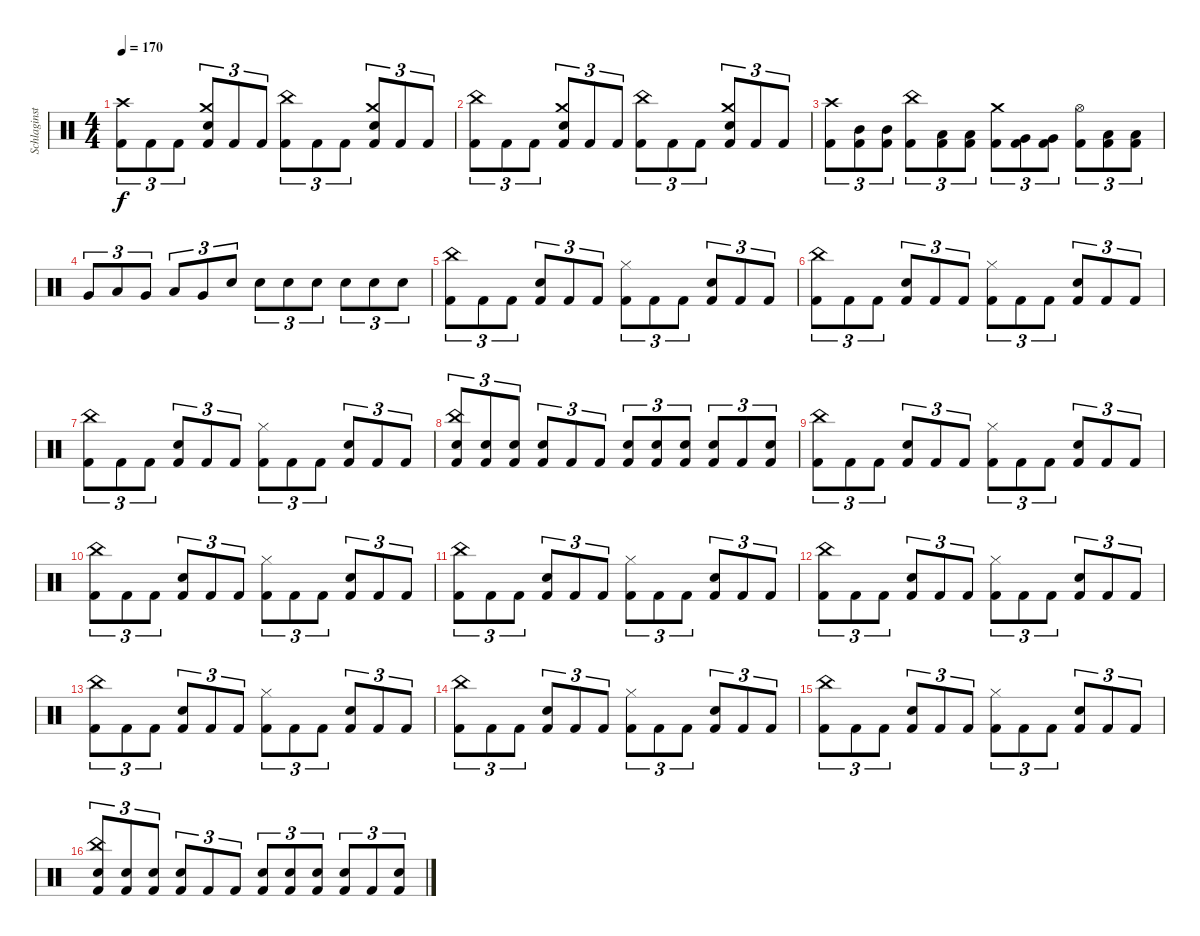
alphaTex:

\track ("Schlaginstrumente - Auswahl" "Schlaginst") {instrument percussion}
\staff {score}
\articulation defaults
\ts (4 4)
\tempo 170
\clef neutral
\ks c
("Crash high (hit)" "Kick (hit) 2").8{tu (3 2) dy f} "Kick (hit) 2".8{tu (3 2)} "Kick (hit) 2".8{tu (3 2)} ("Crash medium (hit)" "Electric Snare (hit)" "Kick (hit) 2").8{tu (3 2)} "Kick (hit) 2".8{tu (3 2)} "Kick (hit) 2".8{tu (3 2)} ("China (hit)" "Kick (hit) 2").8{tu (3 2)} "Kick (hit) 2".8{tu (3 2)} "Kick (hit) 2".8{tu (3 2)} ("Crash medium (hit)" "Electric Snare (hit)" "Kick (hit) 2").8{tu (3 2)} "Kick (hit) 2".8{tu (3 2)} "Kick (hit) 2".8{tu (3 2)} |
("China (hit)" "Kick (hit) 2").8{tu (3 2)} "Kick (hit) 2".8{tu (3 2)} "Kick (hit) 2".8{tu (3 2)} ("Crash medium (hit)" "Electric Snare (hit)" "Kick (hit) 2").8{tu (3 2)} "Kick (hit) 2".8{tu (3 2)} "Kick (hit) 2".8{tu (3 2)} ("China (hit)" "Kick (hit) 2").8{tu (3 2)} "Kick (hit) 2".8{tu (3 2)} "Kick (hit) 2".8{tu (3 2)} ("Crash medium (hit)" "Electric Snare (hit)" "Kick (hit) 2").8{tu (3 2)} "Kick (hit) 2".8{tu (3 2)} "Kick (hit) 2".8{tu (3 2)} |
("Crash high (hit)" "Kick (hit) 2").8{tu (3 2)} ("Mid Tom (hit)" "Kick (hit) 2").8{tu (3 2)} ("Mid Tom (hit)" "Kick (hit) 2").8{tu (3 2)} ("China (hit)" "Kick (hit) 2").8{tu (3 2)} ("Low Tom (hit)" "Kick (hit) 2").8{tu (3 2)} ("Low Tom (hit)" "Kick (hit) 2").8{tu (3 2)} ("Crash medium (hit)" "Kick (hit) 2").8{tu (3 2)} ("Very Low Tom (hit)" "Kick (hit) 2").8{tu (3 2)} ("Very Low Tom (hit)" "Kick (hit) 2").8{tu (3 2)} ("Hi-Hat (open)" "Kick (hit) 2").8{tu (3 2)} ("Low Floor Tom (hit)" "Kick (hit) 2").8{tu (3 2)} ("Low Floor Tom (hit)" "Kick (hit) 2").8{tu (3 2)} |
"Very Low Tom (hit)".8{tu (3 2)} "Low Tom (hit)".8{tu (3 2)} "Very Low Tom (hit)".8{tu (3 2)} "Low Tom (hit)".8{tu (3 2)} "Very Low Tom (hit)".8{tu (3 2)} "Electric Snare (hit)".8{tu (3 2)} "Electric Snare (hit)".8{tu (3 2)} "Electric Snare (hit)".8{tu (3 2)} "Electric Snare (hit)".8{tu (3 2)} "Electric Snare (hit)".8{tu (3 2)} "Electric Snare (hit)".8{tu (3 2)} "Electric Snare (hit)".8{tu (3 2)} |
("Kick (hit) 2" "China (hit)").8{tu (3 2)} "Kick (hit) 2".8{tu (3 2)} "Kick (hit) 2".8{tu (3 2)} ("Kick (hit) 2" "Snare (hit) 2").8{tu (3 2)} "Kick (hit) 2".8{tu (3 2)} "Kick (hit) 2".8{tu (3 2)} ("Kick (hit) 2" "Hi-Hat (closed)").8{tu (3 2)} "Kick (hit) 2".8{tu (3 2)} "Kick (hit) 2".8{tu (3 2)} ("Kick (hit) 2" "Snare (hit) 2").8{tu (3 2)} "Kick (hit) 2".8{tu (3 2)} "Kick (hit) 2".8{tu (3 2)} |
("Kick (hit) 2" "China (hit)").8{tu (3 2)} "Kick (hit) 2".8{tu (3 2)} "Kick (hit) 2".8{tu (3 2)} ("Kick (hit) 2" "Snare (hit) 2").8{tu (3 2)} "Kick (hit) 2".8{tu (3 2)} "Kick (hit) 2".8{tu (3 2)} ("Kick (hit) 2" "Hi-Hat (closed)").8{tu (3 2)} "Kick (hit) 2".8{tu (3 2)} "Kick (hit) 2".8{tu (3 2)} ("Kick (hit) 2" "Snare (hit) 2").8{tu (3 2)} "Kick (hit) 2".8{tu (3 2)} "Kick (hit) 2".8{tu (3 2)} |
("Kick (hit) 2" "China (hit)").8{tu (3 2)} "Kick (hit) 2".8{tu (3 2)} "Kick (hit) 2".8{tu (3 2)} ("Kick (hit) 2" "Snare (hit) 2").8{tu (3 2)} "Kick (hit) 2".8{tu (3 2)} "Kick (hit) 2".8{tu (3 2)} ("Kick (hit) 2" "Hi-Hat (closed)").8{tu (3 2)} "Kick (hit) 2".8{tu (3 2)} "Kick (hit) 2".8{tu (3 2)} ("Kick (hit) 2" "Snare (hit) 2").8{tu (3 2)} "Kick (hit) 2".8{tu (3 2)} "Kick (hit) 2".8{tu (3 2)} |
("Kick (hit) 2" "Snare (hit) 2" "China (hit)").8{tu (3 2)} ("Kick (hit) 2" "Snare (hit) 2").8{tu (3 2)} ("Kick (hit) 2" "Snare (hit) 2").8{tu (3 2)} ("Kick (hit) 2" "Snare (hit) 2").8{tu (3 2)} "Kick (hit) 2".8{tu (3 2)} "Kick (hit) 2".8{tu (3 2)} ("Kick (hit) 2" "Snare (hit) 2").8{tu (3 2)} ("Kick (hit) 2" "Snare (hit) 2").8{tu (3 2)} ("Kick (hit) 2" "Snare (hit) 2").8{tu (3 2)} ("Kick (hit) 2" "Snare (hit) 2").8{tu (3 2)} "Kick (hit) 2".8{tu (3 2)} ("Kick (hit) 2" "Snare (hit) 2").8{tu (3 2)} |
("Kick (hit) 2" "China (hit)").8{tu (3 2)} "Kick (hit) 2".8{tu (3 2)} "Kick (hit) 2".8{tu (3 2)} ("Kick (hit) 2" "Snare (hit) 2").8{tu (3 2)} "Kick (hit) 2".8{tu (3 2)} "Kick (hit) 2".8{tu (3 2)} ("Kick (hit) 2" "Hi-Hat (closed)").8{tu (3 2)} "Kick (hit) 2".8{tu (3 2)} "Kick (hit) 2".8{tu (3 2)} ("Kick (hit) 2" "Snare (hit) 2").8{tu (3 2)} "Kick (hit) 2".8{tu (3 2)} "Kick (hit) 2".8{tu (3 2)} |
("Kick (hit) 2" "China (hit)").8{tu (3 2)} "Kick (hit) 2".8{tu (3 2)} "Kick (hit) 2".8{tu (3 2)} ("Kick (hit) 2" "Snare (hit) 2").8{tu (3 2)} "Kick (hit) 2".8{tu (3 2)} "Kick (hit) 2".8{tu (3 2)} ("Kick (hit) 2" "Hi-Hat (closed)").8{tu (3 2)} "Kick (hit) 2".8{tu (3 2)} "Kick (hit) 2".8{tu (3 2)} ("Kick (hit) 2" "Snare (hit) 2").8{tu (3 2)} "Kick (hit) 2".8{tu (3 2)} "Kick (hit) 2".8{tu (3 2)} |
("Kick (hit) 2" "China (hit)").8{tu (3 2)} "Kick (hit) 2".8{tu (3 2)} "Kick (hit) 2".8{tu (3 2)} ("Kick (hit) 2" "Snare (hit) 2").8{tu (3 2)} "Kick (hit) 2".8{tu (3 2)} "Kick (hit) 2".8{tu (3 2)} ("Kick (hit) 2" "Hi-Hat (closed)").8{tu (3 2)} "Kick (hit) 2".8{tu (3 2)} "Kick (hit) 2".8{tu (3 2)} ("Kick (hit) 2" "Snare (hit) 2").8{tu (3 2)} "Kick (hit) 2".8{tu (3 2)} "Kick (hit) 2".8{tu (3 2)} |
("Kick (hit) 2" "China (hit)").8{tu (3 2)} "Kick (hit) 2".8{tu (3 2)} "Kick (hit) 2".8{tu (3 2)} ("Kick (hit) 2" "Snare (hit) 2").8{tu (3 2)} "Kick (hit) 2".8{tu (3 2)} "Kick (hit) 2".8{tu (3 2)} ("Kick (hit) 2" "Hi-Hat (closed)").8{tu (3 2)} "Kick (hit) 2".8{tu (3 2)} "Kick (hit) 2".8{tu (3 2)} ("Kick (hit) 2" "Snare (hit) 2").8{tu (3 2)} "Kick (hit) 2".8{tu (3 2)} "Kick (hit) 2".8{tu (3 2)} |
("Kick (hit) 2" "China (hit)").8{tu (3 2)} "Kick (hit) 2".8{tu (3 2)} "Kick (hit) 2".8{tu (3 2)} ("Kick (hit) 2" "Snare (hit) 2").8{tu (3 2)} "Kick (hit) 2".8{tu (3 2)} "Kick (hit) 2".8{tu (3 2)} ("Kick (hit) 2" "Hi-Hat (closed)").8{tu (3 2)} "Kick (hit) 2".8{tu (3 2)} "Kick (hit) 2".8{tu (3 2)} ("Kick (hit) 2" "Snare (hit) 2").8{tu (3 2)} "Kick (hit) 2".8{tu (3 2)} "Kick (hit) 2".8{tu (3 2)} |
("Kick (hit) 2" "China (hit)").8{tu (3 2)} "Kick (hit) 2".8{tu (3 2)} "Kick (hit) 2".8{tu (3 2)} ("Kick (hit) 2" "Snare (hit) 2").8{tu (3 2)} "Kick (hit) 2".8{tu (3 2)} "Kick (hit) 2".8{tu (3 2)} ("Kick (hit) 2" "Hi-Hat (closed)").8{tu (3 2)} "Kick (hit) 2".8{tu (3 2)} "Kick (hit) 2".8{tu (3 2)} ("Kick (hit) 2" "Snare (hit) 2").8{tu (3 2)} "Kick (hit) 2".8{tu (3 2)} "Kick (hit) 2".8{tu (3 2)} |
("Kick (hit) 2" "China (hit)").8{tu (3 2)} "Kick (hit) 2".8{tu (3 2)} "Kick (hit) 2".8{tu (3 2)} ("Kick (hit) 2" "Snare (hit) 2").8{tu (3 2)} "Kick (hit) 2".8{tu (3 2)} "Kick (hit) 2".8{tu (3 2)} ("Kick (hit) 2" "Hi-Hat (closed)").8{tu (3 2)} "Kick (hit) 2".8{tu (3 2)} "Kick (hit) 2".8{tu (3 2)} ("Kick (hit) 2" "Snare (hit) 2").8{tu (3 2)} "Kick (hit) 2".8{tu (3 2)} "Kick (hit) 2".8{tu (3 2)} |
("Kick (hit) 2" "Snare (hit) 2" "China (hit)").8{tu (3 2)} ("Kick (hit) 2" "Snare (hit) 2").8{tu (3 2)} ("Kick (hit) 2" "Snare (hit) 2").8{tu (3 2)} ("Kick (hit) 2" "Snare (hit) 2").8{tu (3 2)} "Kick (hit) 2".8{tu (3 2)} "Kick (hit) 2".8{tu (3 2)} ("Kick (hit) 2" "Snare (hit) 2").8{tu (3 2)} ("Kick (hit) 2" "Snare (hit) 2").8{tu (3 2)} ("Kick (hit) 2" "Snare (hit) 2").8{tu (3 2)} ("Kick (hit) 2" "Snare (hit) 2").8{tu (3 2)} "Kick (hit) 2".8{tu (3 2)} ("Kick (hit) 2" "Snare (hit) 2").8{tu (3 2)}
